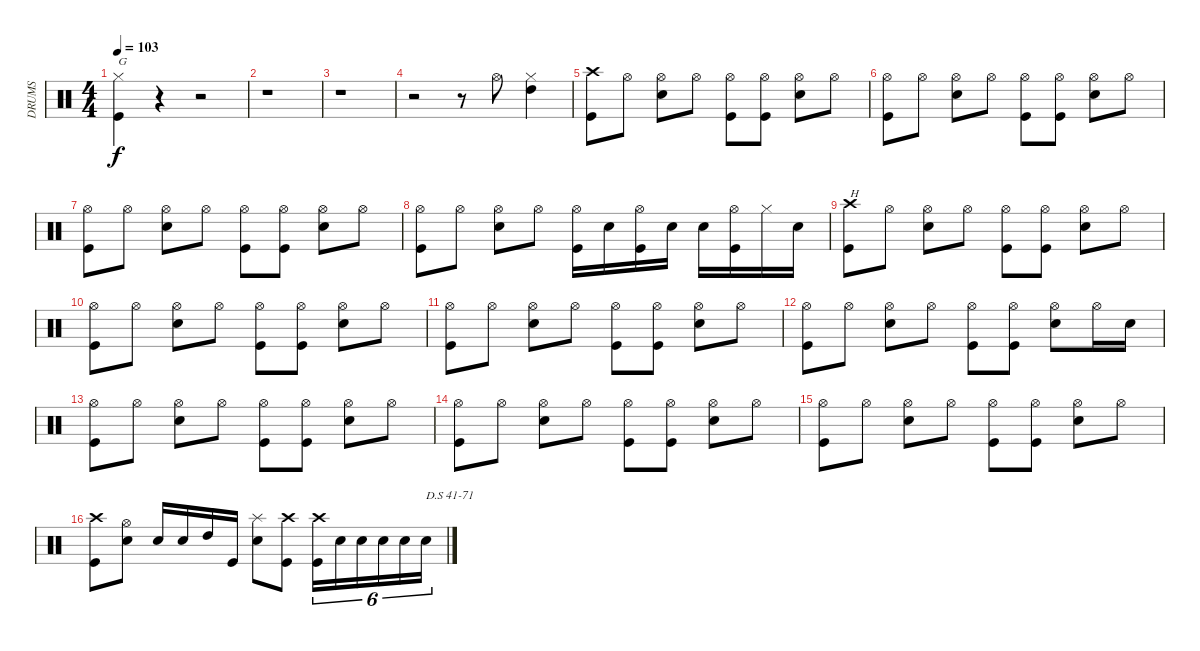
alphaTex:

\track ("DRUMS" "DRUMS") {instrument percussion}
\staff {score}
\articulation defaults
\ts (4 4)
\tempo 103
\clef neutral
\ks c
("Hi-Hat (closed)" "Kick (hit)").4{txt "G" dy f} r.4 r.2 |
r.1 |
r.1 |
r.2 r.8 "Hi-Hat (open)".8 ("Hi-Hat (closed)" "High Tom (hit)").4 |
("Crash high (hit)" "Kick (hit)").8 "Hi-Hat (open)".8 ("Hi-Hat (open)" "Electric Snare (hit)").8 "Hi-Hat (open)".8 ("Hi-Hat (open)" "Kick (hit)").8 ("Hi-Hat (open)" "Kick (hit)").8 ("Hi-Hat (open)" "Electric Snare (hit)").8 "Hi-Hat (open)".8 |
("Hi-Hat (open)" "Kick (hit)").8 "Hi-Hat (open)".8 ("Hi-Hat (open)" "Electric Snare (hit)").8 "Hi-Hat (open)".8 ("Hi-Hat (open)" "Kick (hit)").8 ("Hi-Hat (open)" "Kick (hit)").8 ("Hi-Hat (open)" "Electric Snare (hit)").8 "Hi-Hat (open)".8 |
("Hi-Hat (open)" "Kick (hit)").8 "Hi-Hat (open)".8 ("Hi-Hat (open)" "Electric Snare (hit)").8 "Hi-Hat (open)".8 ("Hi-Hat (open)" "Kick (hit)").8 ("Hi-Hat (open)" "Kick (hit)").8 ("Hi-Hat (open)" "Electric Snare (hit)").8 "Hi-Hat (open)".8 |
("Hi-Hat (open)" "Kick (hit)").8 "Hi-Hat (open)".8 ("Hi-Hat (open)" "Electric Snare (hit)").8 "Hi-Hat (open)".8 ("Hi-Hat (open)" "Kick (hit)").16 "Electric Snare (hit)".16 ("Hi-Hat (open)" "Kick (hit)").16 "Electric Snare (hit)".16 "Electric Snare (hit)".16 ("Hi-Hat (open)" "Kick (hit)").16 "Hi-Hat (closed)".16 "Electric Snare (hit)".16 |
("Crash high (hit)" "Kick (hit)").8{txt "H"} "Hi-Hat (open)".8 ("Hi-Hat (open)" "Electric Snare (hit)").8 "Hi-Hat (open)".8 ("Hi-Hat (open)" "Kick (hit)").8 ("Hi-Hat (open)" "Kick (hit)").8 ("Hi-Hat (open)" "Electric Snare (hit)").8 "Hi-Hat (open)".8 |
("Hi-Hat (open)" "Kick (hit)").8 "Hi-Hat (open)".8 ("Hi-Hat (open)" "Electric Snare (hit)").8 "Hi-Hat (open)".8 ("Hi-Hat (open)" "Kick (hit)").8 ("Hi-Hat (open)" "Kick (hit)").8 ("Hi-Hat (open)" "Electric Snare (hit)").8 "Hi-Hat (open)".8 |
("Hi-Hat (open)" "Kick (hit)").8 "Hi-Hat (open)".8 ("Hi-Hat (open)" "Electric Snare (hit)").8 "Hi-Hat (open)".8 ("Hi-Hat (open)" "Kick (hit)").8 ("Hi-Hat (open)" "Kick (hit)").8 ("Hi-Hat (open)" "Electric Snare (hit)").8 "Hi-Hat (open)".8 |
("Hi-Hat (open)" "Kick (hit)").8 "Hi-Hat (open)".8 ("Hi-Hat (open)" "Electric Snare (hit)").8 "Hi-Hat (open)".8 ("Hi-Hat (open)" "Kick (hit)").8 ("Hi-Hat (open)" "Kick (hit)").8 ("Hi-Hat (open)" "Electric Snare (hit)").8 "Hi-Hat (open)".16 "Electric Snare (hit)".16 |
("Hi-Hat (open)" "Kick (hit)").8 "Hi-Hat (open)".8 ("Hi-Hat (open)" "Electric Snare (hit)").8 "Hi-Hat (open)".8 ("Hi-Hat (open)" "Kick (hit)").8 ("Hi-Hat (open)" "Kick (hit)").8 ("Hi-Hat (open)" "Electric Snare (hit)").8 "Hi-Hat (open)".8 |
("Hi-Hat (open)" "Kick (hit)").8 "Hi-Hat (open)".8 ("Hi-Hat (open)" "Electric Snare (hit)").8 "Hi-Hat (open)".8 ("Hi-Hat (open)" "Kick (hit)").8 ("Hi-Hat (open)" "Kick (hit)").8 ("Hi-Hat (open)" "Electric Snare (hit)").8 "Hi-Hat (open)".8 |
("Hi-Hat (open)" "Kick (hit)").8 "Hi-Hat (open)".8 ("Hi-Hat (open)" "Electric Snare (hit)").8 "Hi-Hat (open)".8 ("Hi-Hat (open)" "Kick (hit)").8 ("Hi-Hat (open)" "Kick (hit)").8 ("Hi-Hat (open)" "Electric Snare (hit)").8 "Hi-Hat (open)".8 |
("Crash high (hit)" "Kick (hit)").8 ("Hi-Hat (open)" "Electric Snare (hit)").8 "Electric Snare (hit)".16 "Electric Snare (hit)".16 "High Tom (hit)".16 "Kick (hit)".16 ("Splash (hit)" "Electric Snare (hit)").8 ("Crash high (hit)" "Kick (hit)").8 ("Crash high (hit)" "Kick (hit)").16{tu (6 4)} "Electric Snare (hit)".16{tu (6 4)} "Electric Snare (hit)".16{tu (6 4)} "Electric Snare (hit)".16{tu (6 4)} "Electric Snare (hit)".16{tu (6 4)} "Electric Snare (hit)".16{tu (6 4) txt "D.S 41-71"}
